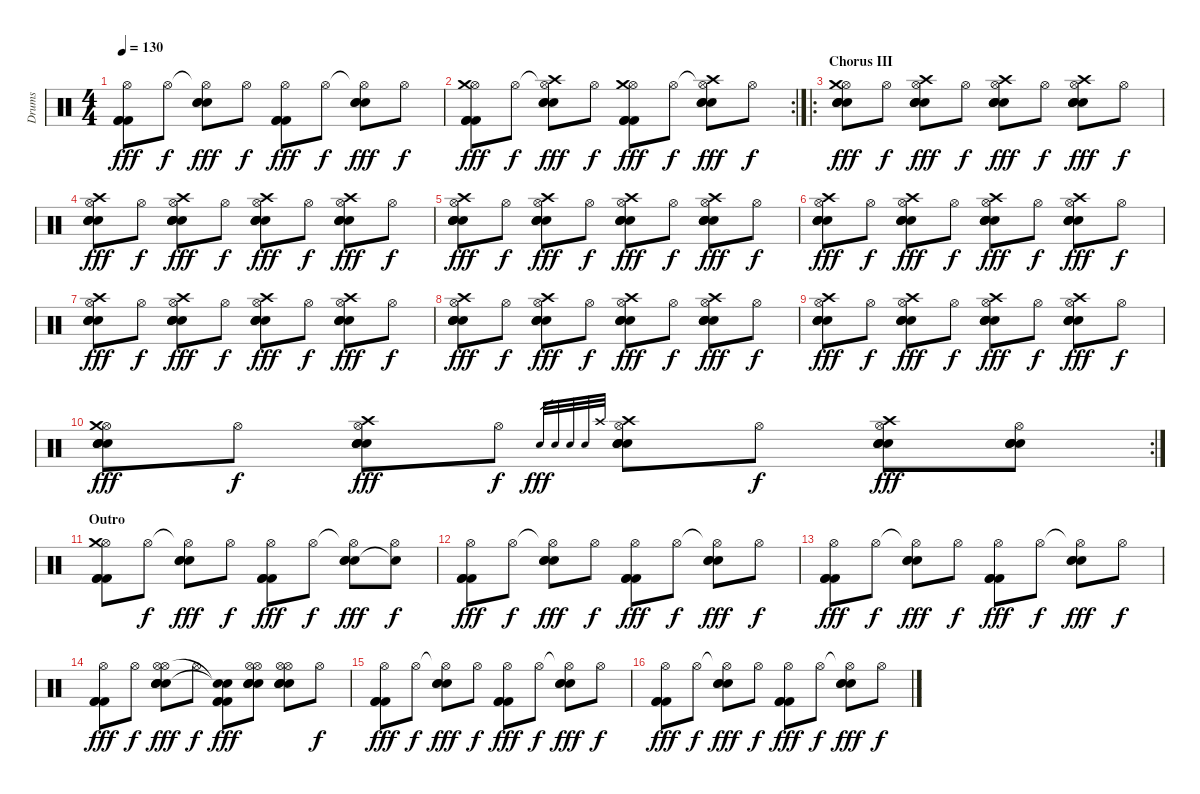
\track ("Drums" "Drums") {instrument percussion}
\staff {score}
\articulation defaults
\ts (4 4)
\tempo 130
\clef neutral
\ks c
("Hi-Hat (open)" "Kick (hit) 2" "Kick (hit) 2" "Kick (hit) 2").8{dy fff} "Hi-Hat (open)".8{dy f} ("Hi-Hat (open)"{t} "Electric Snare (hit)" "Electric Snare (hit)" "Electric Snare (hit)").8{dy fff} "Hi-Hat (open)".8{dy f} ("Hi-Hat (open)" "Kick (hit) 2" "Kick (hit) 2" "Kick (hit) 2").8{dy fff} "Hi-Hat (open)".8{dy f} ("Hi-Hat (open)"{t} "Electric Snare (hit)" "Electric Snare (hit)" "Electric Snare (hit)").8{dy fff} "Hi-Hat (open)".8{dy f} |
\rc 2
("Hi-Hat (open)" "Kick (hit) 2" "Kick (hit) 2" "Kick (hit) 2" "Crash medium (hit)").8{dy fff} "Hi-Hat (open)".8{dy f} ("Hi-Hat (open)"{t} "Electric Snare (hit)" "Electric Snare (hit)" "Electric Snare (hit)" "Crash high (hit)").8{dy fff} "Hi-Hat (open)".8{dy f} ("Hi-Hat (open)" "Kick (hit) 2" "Kick (hit) 2" "Kick (hit) 2" "Crash medium (hit)").8{dy fff} "Hi-Hat (open)".8{dy f} ("Hi-Hat (open)"{t} "Electric Snare (hit)" "Electric Snare (hit)" "Electric Snare (hit)" "Crash high (hit)").8{dy fff} "Hi-Hat (open)".8{dy f} |
\ro
\section ("" "Chorus III")
("Hi-Hat (open)" "Electric Snare (hit)" "Electric Snare (hit)" "Electric Snare (hit)" "Electric Snare (hit)" "Crash medium (hit)").8{dy fff} "Hi-Hat (open)".8{dy f} ("Hi-Hat (open)" "Electric Snare (hit)" "Electric Snare (hit)" "Electric Snare (hit)" "Electric Snare (hit)" "Crash high (hit)").8{dy fff} "Hi-Hat (open)".8{dy f} ("Hi-Hat (open)" "Electric Snare (hit)" "Electric Snare (hit)" "Electric Snare (hit)" "Electric Snare (hit)" "Crash high (hit)").8{dy fff} "Hi-Hat (open)".8{dy f} ("Hi-Hat (open)" "Electric Snare (hit)" "Electric Snare (hit)" "Electric Snare (hit)" "Electric Snare (hit)" "Crash high (hit)").8{dy fff} "Hi-Hat (open)".8{dy f} |
("Hi-Hat (open)" "Electric Snare (hit)" "Electric Snare (hit)" "Electric Snare (hit)" "Electric Snare (hit)" "Crash high (hit)").8{dy fff} "Hi-Hat (open)".8{dy f} ("Hi-Hat (open)" "Electric Snare (hit)" "Electric Snare (hit)" "Electric Snare (hit)" "Electric Snare (hit)" "Crash high (hit)").8{dy fff} "Hi-Hat (open)".8{dy f} ("Hi-Hat (open)" "Electric Snare (hit)" "Electric Snare (hit)" "Electric Snare (hit)" "Electric Snare (hit)" "Crash high (hit)").8{dy fff} "Hi-Hat (open)".8{dy f} ("Hi-Hat (open)" "Electric Snare (hit)" "Electric Snare (hit)" "Electric Snare (hit)" "Electric Snare (hit)" "Crash high (hit)").8{dy fff} "Hi-Hat (open)".8{dy f} |
("Hi-Hat (open)" "Electric Snare (hit)" "Electric Snare (hit)" "Electric Snare (hit)" "Electric Snare (hit)" "Crash high (hit)").8{dy fff} "Hi-Hat (open)".8{dy f} ("Hi-Hat (open)" "Electric Snare (hit)" "Electric Snare (hit)" "Electric Snare (hit)" "Electric Snare (hit)" "Crash high (hit)").8{dy fff} "Hi-Hat (open)".8{dy f} ("Hi-Hat (open)" "Electric Snare (hit)" "Electric Snare (hit)" "Electric Snare (hit)" "Electric Snare (hit)" "Crash high (hit)").8{dy fff} "Hi-Hat (open)".8{dy f} ("Hi-Hat (open)" "Electric Snare (hit)" "Electric Snare (hit)" "Electric Snare (hit)" "Electric Snare (hit)" "Crash high (hit)").8{dy fff} "Hi-Hat (open)".8{dy f} |
("Hi-Hat (open)" "Electric Snare (hit)" "Electric Snare (hit)" "Electric Snare (hit)" "Electric Snare (hit)" "Crash high (hit)").8{dy fff} "Hi-Hat (open)".8{dy f} ("Hi-Hat (open)" "Electric Snare (hit)" "Electric Snare (hit)" "Electric Snare (hit)" "Electric Snare (hit)" "Crash high (hit)").8{dy fff} "Hi-Hat (open)".8{dy f} ("Hi-Hat (open)" "Electric Snare (hit)" "Electric Snare (hit)" "Electric Snare (hit)" "Electric Snare (hit)" "Crash high (hit)").8{dy fff} "Hi-Hat (open)".8{dy f} ("Hi-Hat (open)" "Electric Snare (hit)" "Electric Snare (hit)" "Electric Snare (hit)" "Electric Snare (hit)" "Crash high (hit)").8{dy fff} "Hi-Hat (open)".8{dy f} |
("Hi-Hat (open)" "Electric Snare (hit)" "Electric Snare (hit)" "Electric Snare (hit)" "Electric Snare (hit)" "Crash high (hit)").8{dy fff} "Hi-Hat (open)".8{dy f} ("Hi-Hat (open)" "Electric Snare (hit)" "Electric Snare (hit)" "Electric Snare (hit)" "Electric Snare (hit)" "Crash high (hit)").8{dy fff} "Hi-Hat (open)".8{dy f} ("Hi-Hat (open)" "Electric Snare (hit)" "Electric Snare (hit)" "Electric Snare (hit)" "Electric Snare (hit)" "Crash high (hit)").8{dy fff} "Hi-Hat (open)".8{dy f} ("Hi-Hat (open)" "Electric Snare (hit)" "Electric Snare (hit)" "Electric Snare (hit)" "Electric Snare (hit)" "Crash high (hit)").8{dy fff} "Hi-Hat (open)".8{dy f} |
("Hi-Hat (open)" "Electric Snare (hit)" "Electric Snare (hit)" "Electric Snare (hit)" "Electric Snare (hit)" "Crash high (hit)").8{dy fff} "Hi-Hat (open)".8{dy f} ("Hi-Hat (open)" "Electric Snare (hit)" "Electric Snare (hit)" "Electric Snare (hit)" "Electric Snare (hit)" "Crash high (hit)").8{dy fff} "Hi-Hat (open)".8{dy f} ("Hi-Hat (open)" "Electric Snare (hit)" "Electric Snare (hit)" "Electric Snare (hit)" "Electric Snare (hit)" "Crash high (hit)").8{dy fff} "Hi-Hat (open)".8{dy f} ("Hi-Hat (open)" "Electric Snare (hit)" "Electric Snare (hit)" "Electric Snare (hit)" "Electric Snare (hit)" "Crash high (hit)").8{dy fff} "Hi-Hat (open)".8{dy f} |
("Hi-Hat (open)" "Electric Snare (hit)" "Electric Snare (hit)" "Electric Snare (hit)" "Electric Snare (hit)" "Crash high (hit)").8{dy fff} "Hi-Hat (open)".8{dy f} ("Hi-Hat (open)" "Electric Snare (hit)" "Electric Snare (hit)" "Electric Snare (hit)" "Electric Snare (hit)" "Crash high (hit)").8{dy fff} "Hi-Hat (open)".8{dy f} ("Hi-Hat (open)" "Electric Snare (hit)" "Electric Snare (hit)" "Electric Snare (hit)" "Electric Snare (hit)" "Crash high (hit)").8{dy fff} "Hi-Hat (open)".8{dy f} ("Hi-Hat (open)" "Electric Snare (hit)" "Electric Snare (hit)" "Electric Snare (hit)" "Electric Snare (hit)" "Crash high (hit)").8{dy fff} "Hi-Hat (open)".8{dy f} |
\rc 2
("Hi-Hat (open)" "Electric Snare (hit)" "Electric Snare (hit)" "Electric Snare (hit)" "Electric Snare (hit)" "Crash medium (hit)").8{dy fff} "Hi-Hat (open)".8{dy f} ("Hi-Hat (open)" "Electric Snare (hit)" "Electric Snare (hit)" "Electric Snare (hit)" "Electric Snare (hit)" "Crash high (hit)").8{dy fff} "Hi-Hat (open)".8{dy f} "Electric Snare (hit)".32{gr dy fff} "Electric Snare (hit)".32{gr} "Electric Snare (hit)".32{gr} "Electric Snare (hit)".32{gr} "Crash high (hit)".32{gr} ("Hi-Hat (open)" "Electric Snare (hit)" "Electric Snare (hit)" "Electric Snare (hit)" "Electric Snare (hit)" "Crash high (hit)").8 "Hi-Hat (open)".8{dy f} ("Hi-Hat (open)" "Electric Snare (hit)" "Electric Snare (hit)" "Electric Snare (hit)" "Electric Snare (hit)" "Crash high (hit)").8{dy fff} ("Hi-Hat (open)" "Electric Snare (hit)" "Electric Snare (hit)" "Electric Snare (hit)" "Electric Snare (hit)").8 |
\section ("" "Outro")
("Hi-Hat (open)" "Kick (hit) 2" "Kick (hit) 2" "Kick (hit) 2" "Crash medium (hit)").8 "Hi-Hat (open)".8{dy f} ("Hi-Hat (open)"{t} "Electric Snare (hit)" "Electric Snare (hit)" "Electric Snare (hit)").8{dy fff} "Hi-Hat (open)".8{dy f} ("Hi-Hat (open)" "Kick (hit) 2" "Kick (hit) 2" "Kick (hit) 2").8{dy fff} "Hi-Hat (open)".8{dy f} ("Hi-Hat (open)"{t} "Electric Snare (hit)" "Electric Snare (hit)" "Electric Snare (hit)").8{dy fff} ("Hi-Hat (open)" "Snare (hit)"{t}).8{dy f} |
("Hi-Hat (open)" "Kick (hit) 2" "Kick (hit) 2" "Kick (hit) 2").8{dy fff} "Hi-Hat (open)".8{dy f} ("Hi-Hat (open)"{t} "Electric Snare (hit)" "Electric Snare (hit)" "Electric Snare (hit)").8{dy fff} "Hi-Hat (open)".8{dy f} ("Hi-Hat (open)" "Kick (hit) 2" "Kick (hit) 2" "Kick (hit) 2").8{dy fff} "Hi-Hat (open)".8{dy f} ("Hi-Hat (open)"{t} "Electric Snare (hit)" "Electric Snare (hit)" "Electric Snare (hit)").8{dy fff} "Hi-Hat (open)".8{dy f} |
("Hi-Hat (open)" "Kick (hit) 2" "Kick (hit) 2" "Kick (hit) 2").8{dy fff} "Hi-Hat (open)".8{dy f} ("Hi-Hat (open)"{t} "Electric Snare (hit)" "Electric Snare (hit)" "Electric Snare (hit)").8{dy fff} "Hi-Hat (open)".8{dy f} ("Hi-Hat (open)" "Kick (hit) 2" "Kick (hit) 2" "Kick (hit) 2").8{dy fff} "Hi-Hat (open)".8{dy f} ("Hi-Hat (open)"{t} "Electric Snare (hit)" "Electric Snare (hit)" "Electric Snare (hit)").8{dy fff} "Hi-Hat (open)".8{dy f} |
("Hi-Hat (open)" "Kick (hit) 2" "Kick (hit) 2" "Kick (hit) 2").8{dy fff} "Hi-Hat (open)".8{dy f} ("Electric Snare (hit)" "Electric Snare (hit)" "Electric Snare (hit)" "Electric Snare (hit)" "Hi-Hat (open)" "Hi-Hat (open)").8{dy fff} "Hi-Hat (open)".8{dy f} ("Kick (hit) 2" "Kick (hit) 2" "Kick (hit) 2" "Snare (hit)"{t} "Snare (hit)"{t}).8{dy fff} ("Electric Snare (hit)" "Electric Snare (hit)" "Electric Snare (hit)" "Electric Snare (hit)" "Hi-Hat (open)" "Hi-Hat (open)").8 ("Electric Snare (hit)" "Electric Snare (hit)" "Electric Snare (hit)" "Electric Snare (hit)" "Hi-Hat (open)" "Hi-Hat (open)").8 "Hi-Hat (open)".8{dy f} |
("Hi-Hat (open)" "Kick (hit) 2" "Kick (hit) 2" "Kick (hit) 2").8{dy fff} "Hi-Hat (open)".8{dy f} ("Hi-Hat (open)"{t} "Electric Snare (hit)" "Electric Snare (hit)" "Electric Snare (hit)").8{dy fff} "Hi-Hat (open)".8{dy f} ("Hi-Hat (open)" "Kick (hit) 2" "Kick (hit) 2" "Kick (hit) 2").8{dy fff} "Hi-Hat (open)".8{dy f} ("Hi-Hat (open)"{t} "Electric Snare (hit)" "Electric Snare (hit)" "Electric Snare (hit)").8{dy fff} "Hi-Hat (open)".8{dy f} |
("Hi-Hat (open)" "Kick (hit) 2" "Kick (hit) 2" "Kick (hit) 2").8{dy fff} "Hi-Hat (open)".8{dy f} ("Hi-Hat (open)"{t} "Electric Snare (hit)" "Electric Snare (hit)" "Electric Snare (hit)").8{dy fff} "Hi-Hat (open)".8{dy f} ("Hi-Hat (open)" "Kick (hit) 2" "Kick (hit) 2" "Kick (hit) 2").8{dy fff} "Hi-Hat (open)".8{dy f} ("Hi-Hat (open)"{t} "Electric Snare (hit)" "Electric Snare (hit)" "Electric Snare (hit)").8{dy fff} "Hi-Hat (open)".8{dy f}
